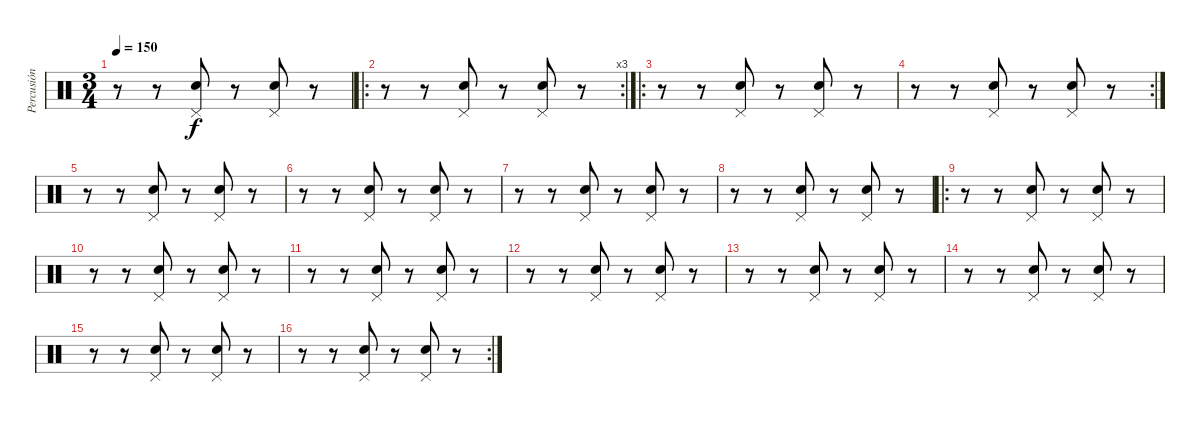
\track ("Percusión" "Percusión") {instrument percussion}
\staff {score}
\articulation defaults
\ts (3 4)
\tempo 150
\clef neutral
\ks c
r.8{dy f} r.8 ("Pedal Hi-Hat (hit)" "Electric Snare (hit)").8 r.8 ("Pedal Hi-Hat (hit)" "Electric Snare (hit)").8 r.8 |
\ro
\rc 3
r.8 r.8 ("Pedal Hi-Hat (hit)" "Electric Snare (hit)").8 r.8 ("Pedal Hi-Hat (hit)" "Electric Snare (hit)").8 r.8 |
\ro
r.8 r.8 ("Pedal Hi-Hat (hit)" "Electric Snare (hit)").8 r.8 ("Pedal Hi-Hat (hit)" "Electric Snare (hit)").8 r.8 |
\rc 2
r.8 r.8 ("Pedal Hi-Hat (hit)" "Electric Snare (hit)").8 r.8 ("Pedal Hi-Hat (hit)" "Electric Snare (hit)").8 r.8 |
r.8 r.8 ("Pedal Hi-Hat (hit)" "Electric Snare (hit)").8 r.8 ("Pedal Hi-Hat (hit)" "Electric Snare (hit)").8 r.8 |
r.8 r.8 ("Pedal Hi-Hat (hit)" "Electric Snare (hit)").8 r.8 ("Pedal Hi-Hat (hit)" "Electric Snare (hit)").8 r.8 |
r.8 r.8 ("Pedal Hi-Hat (hit)" "Electric Snare (hit)").8 r.8 ("Pedal Hi-Hat (hit)" "Electric Snare (hit)").8 r.8 |
r.8 r.8 ("Pedal Hi-Hat (hit)" "Electric Snare (hit)").8 r.8 ("Pedal Hi-Hat (hit)" "Electric Snare (hit)").8 r.8 |
\ro
r.8 r.8 ("Pedal Hi-Hat (hit)" "Electric Snare (hit)").8 r.8 ("Pedal Hi-Hat (hit)" "Electric Snare (hit)").8 r.8 |
r.8 r.8 ("Pedal Hi-Hat (hit)" "Electric Snare (hit)").8 r.8 ("Pedal Hi-Hat (hit)" "Electric Snare (hit)").8 r.8 |
r.8 r.8 ("Pedal Hi-Hat (hit)" "Electric Snare (hit)").8 r.8 ("Pedal Hi-Hat (hit)" "Electric Snare (hit)").8 r.8 |
r.8 r.8 ("Pedal Hi-Hat (hit)" "Electric Snare (hit)").8 r.8 ("Pedal Hi-Hat (hit)" "Electric Snare (hit)").8 r.8 |
r.8 r.8 ("Pedal Hi-Hat (hit)" "Electric Snare (hit)").8 r.8 ("Pedal Hi-Hat (hit)" "Electric Snare (hit)").8 r.8 |
r.8 r.8 ("Pedal Hi-Hat (hit)" "Electric Snare (hit)").8 r.8 ("Pedal Hi-Hat (hit)" "Electric Snare (hit)").8 r.8 |
r.8 r.8 ("Pedal Hi-Hat (hit)" "Electric Snare (hit)").8 r.8 ("Pedal Hi-Hat (hit)" "Electric Snare (hit)").8 r.8 |
\rc 2
r.8 r.8 ("Pedal Hi-Hat (hit)" "Electric Snare (hit)").8 r.8 ("Pedal Hi-Hat (hit)" "Electric Snare (hit)").8 r.8
